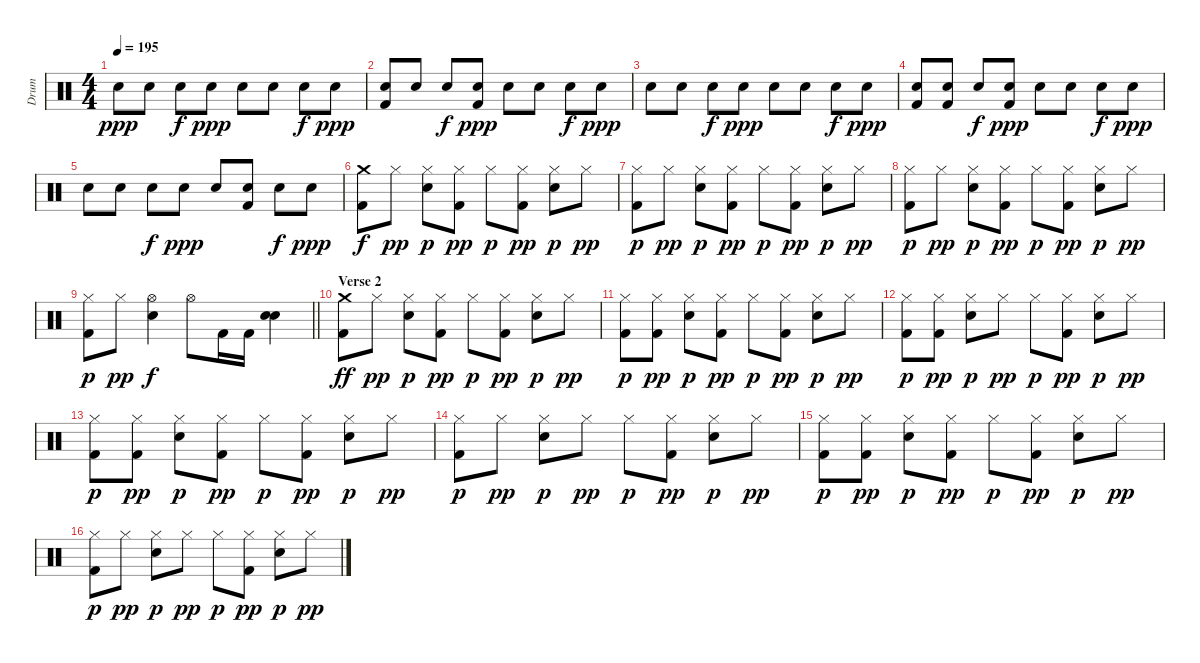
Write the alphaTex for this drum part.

\track ("Drum" "Drum") {instrument percussion}
\staff {score}
\articulation defaults
\ts (4 4)
\tempo 195
\clef neutral
\ks c "Electric Snare (hit)".8{dy ppp} "Electric Snare (hit)".8 "Electric Snare (hit)".8{dy f} "Electric Snare (hit)".8{dy ppp} "Electric Snare (hit)".8 "Electric Snare (hit)".8 "Electric Snare (hit)".8{dy f} "Electric Snare (hit)".8{dy ppp}
|
("Electric Snare (hit)" "Kick (hit) 2").8 "Electric Snare (hit)".8 "Electric Snare (hit)".8{dy f} ("Electric Snare (hit)" "Kick (hit) 2").8{dy ppp} "Electric Snare (hit)".8 "Electric Snare (hit)".8 "Electric Snare (hit)".8{dy f} "Electric Snare (hit)".8{dy ppp} |
"Electric Snare (hit)".8 "Electric Snare (hit)".8 "Electric Snare (hit)".8{dy f} "Electric Snare (hit)".8{dy ppp} "Electric Snare (hit)".8 "Electric Snare (hit)".8 "Electric Snare (hit)".8{dy f} "Electric Snare (hit)".8{dy ppp} |
("Electric Snare (hit)" "Kick (hit) 2").8 ("Electric Snare (hit)" "Kick (hit) 2").8 "Electric Snare (hit)".8{dy f} ("Electric Snare (hit)" "Kick (hit) 2").8{dy ppp} "Electric Snare (hit)".8 "Electric Snare (hit)".8 "Electric Snare (hit)".8{dy f} "Electric Snare (hit)".8{dy ppp} |
"Electric Snare (hit)".8 "Electric Snare (hit)".8 "Electric Snare (hit)".8{dy f} "Electric Snare (hit)".8{dy ppp} "Electric Snare (hit)".8 ("Electric Snare (hit)" "Kick (hit) 2").8 "Electric Snare (hit)".8{dy f} "Electric Snare (hit)".8{dy ppp} |
("Crash medium (hit)" "Kick (hit) 2").8{dy f} "Hi-Hat (closed)".8{dy pp} ("Hi-Hat (closed)" "Electric Snare (hit)").8{dy p} ("Hi-Hat (closed)" "Kick (hit) 2").8{dy pp} "Hi-Hat (closed)".8{dy p} ("Hi-Hat (closed)" "Kick (hit) 2").8{dy pp} ("Hi-Hat (closed)" "Electric Snare (hit)").8{dy p} "Hi-Hat (closed)".8{dy pp} |
("Hi-Hat (closed)" "Kick (hit) 2").8{dy p} "Hi-Hat (closed)".8{dy pp} ("Hi-Hat (closed)" "Electric Snare (hit)").8{dy p} ("Hi-Hat (closed)" "Kick (hit) 2").8{dy pp} "Hi-Hat (closed)".8{dy p} ("Hi-Hat (closed)" "Kick (hit) 2").8{dy pp} ("Hi-Hat (closed)" "Electric Snare (hit)").8{dy p} "Hi-Hat (closed)".8{dy pp} |
("Hi-Hat (closed)" "Kick (hit) 2").8{dy p} "Hi-Hat (closed)".8{dy pp} ("Hi-Hat (closed)" "Electric Snare (hit)").8{dy p} ("Hi-Hat (closed)" "Kick (hit) 2").8{dy pp} "Hi-Hat (closed)".8{dy p} ("Hi-Hat (closed)" "Kick (hit) 2").8{dy pp} ("Hi-Hat (closed)" "Electric Snare (hit)").8{dy p} "Hi-Hat (closed)".8{dy pp} |
\barLineRight lightlight
("Hi-Hat (closed)" "Kick (hit) 2").8{dy p} "Hi-Hat (closed)".8{dy pp} ("Hi-Hat (open)" "Electric Snare (hit)").4{dy f} "Hi-Hat (open)".8 "Kick (hit) 2".16 "Kick (hit) 2".16 ("Electric Snare (hit)" "Electric Snare (hit)").4 |
\section ("" "Verse 2")
("Crash medium (hit)" "Kick (hit) 2").8{dy ff} "Hi-Hat (closed)".8{dy pp} ("Hi-Hat (closed)" "Electric Snare (hit)").8{dy p} ("Hi-Hat (closed)" "Kick (hit) 2").8{dy pp} "Hi-Hat (closed)".8{dy p} ("Hi-Hat (closed)" "Kick (hit) 2").8{dy pp} ("Hi-Hat (closed)" "Electric Snare (hit)").8{dy p} "Hi-Hat (closed)".8{dy pp} |
("Hi-Hat (closed)" "Kick (hit) 2").8{dy p} ("Hi-Hat (closed)" "Kick (hit) 2").8{dy pp} ("Hi-Hat (closed)" "Electric Snare (hit)").8{dy p} ("Hi-Hat (closed)" "Kick (hit) 2").8{dy pp} "Hi-Hat (closed)".8{dy p} ("Hi-Hat (closed)" "Kick (hit) 2").8{dy pp} ("Hi-Hat (closed)" "Electric Snare (hit)").8{dy p} "Hi-Hat (closed)".8{dy pp} |
("Hi-Hat (closed)" "Kick (hit) 2").8{dy p} ("Hi-Hat (closed)" "Kick (hit) 2").8{dy pp} ("Hi-Hat (closed)" "Electric Snare (hit)").8{dy p} "Hi-Hat (closed)".8{dy pp} "Hi-Hat (closed)".8{dy p} ("Hi-Hat (closed)" "Kick (hit) 2").8{dy pp} ("Hi-Hat (closed)" "Electric Snare (hit)").8{dy p} "Hi-Hat (closed)".8{dy pp} |
("Hi-Hat (closed)" "Kick (hit) 2").8{dy p} ("Hi-Hat (closed)" "Kick (hit) 2").8{dy pp} ("Hi-Hat (closed)" "Electric Snare (hit)").8{dy p} ("Hi-Hat (closed)" "Kick (hit) 2").8{dy pp} "Hi-Hat (closed)".8{dy p} ("Hi-Hat (closed)" "Kick (hit) 2").8{dy pp} ("Hi-Hat (closed)" "Electric Snare (hit)").8{dy p} "Hi-Hat (closed)".8{dy pp} |
("Hi-Hat (closed)" "Kick (hit) 2").8{dy p} "Hi-Hat (closed)".8{dy pp} ("Hi-Hat (closed)" "Electric Snare (hit)").8{dy p} "Hi-Hat (closed)".8{dy pp} "Hi-Hat (closed)".8{dy p} ("Hi-Hat (closed)" "Kick (hit) 2").8{dy pp} ("Hi-Hat (closed)" "Electric Snare (hit)").8{dy p} "Hi-Hat (closed)".8{dy pp} |
("Hi-Hat (closed)" "Kick (hit) 2").8{dy p} ("Hi-Hat (closed)" "Kick (hit) 2").8{dy pp} ("Hi-Hat (closed)" "Electric Snare (hit)").8{dy p} ("Hi-Hat (closed)" "Kick (hit) 2").8{dy pp} "Hi-Hat (closed)".8{dy p} ("Hi-Hat (closed)" "Kick (hit) 2").8{dy pp} ("Hi-Hat (closed)" "Electric Snare (hit)").8{dy p} "Hi-Hat (closed)".8{dy pp} |
("Hi-Hat (closed)" "Kick (hit) 2").8{dy p} "Hi-Hat (closed)".8{dy pp} ("Hi-Hat (closed)" "Electric Snare (hit)").8{dy p} "Hi-Hat (closed)".8{dy pp} "Hi-Hat (closed)".8{dy p} ("Hi-Hat (closed)" "Kick (hit) 2").8{dy pp} ("Hi-Hat (closed)" "Electric Snare (hit)").8{dy p} "Hi-Hat (closed)".8{dy pp}
